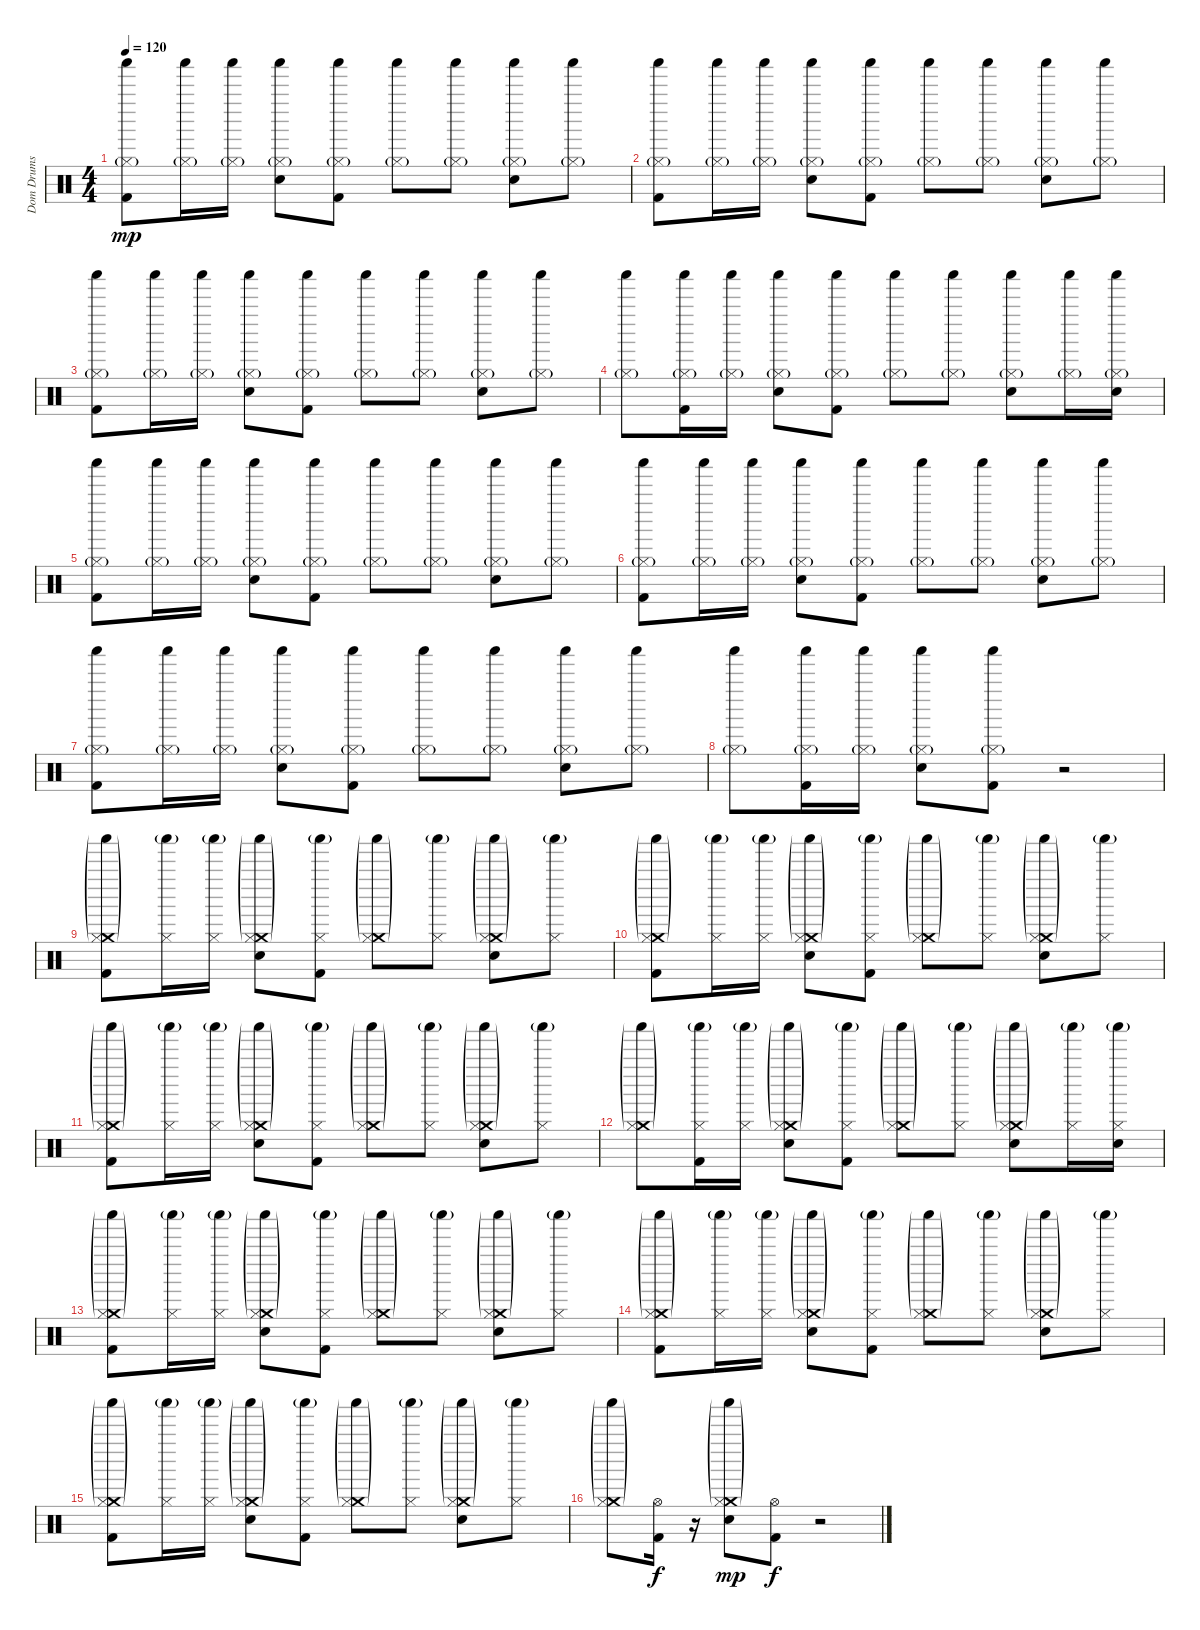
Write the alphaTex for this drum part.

\track ("Dom Drums" "Dom Drums") {instrument percussion}
\staff {score}
\articulation defaults
\ts (4 4)
\tempo 120
\clef neutral
\ks c
("Shaker (hit)" "Hi-Hat (closed)"{g} "Kick (hit) 2").8{dy mp} ("Shaker (hit)" "Hi-Hat (closed)"{g}).16 ("Shaker (hit)" "Hi-Hat (closed)"{g}).16 ("Shaker (hit)" "Hi-Hat (closed)"{g} "Electric Snare (hit)").8 ("Shaker (hit)" "Hi-Hat (closed)"{g} "Kick (hit) 2").8 ("Shaker (hit)" "Hi-Hat (closed)"{g}).8 ("Shaker (hit)" "Hi-Hat (closed)"{g}).8 ("Shaker (hit)" "Hi-Hat (closed)"{g} "Electric Snare (hit)").8 ("Shaker (hit)" "Hi-Hat (closed)"{g}).8 |
("Shaker (hit)" "Hi-Hat (closed)"{g} "Kick (hit) 2").8 ("Shaker (hit)" "Hi-Hat (closed)"{g}).16 ("Shaker (hit)" "Hi-Hat (closed)"{g}).16 ("Shaker (hit)" "Hi-Hat (closed)"{g} "Electric Snare (hit)").8 ("Shaker (hit)" "Hi-Hat (closed)"{g} "Kick (hit) 2").8 ("Shaker (hit)" "Hi-Hat (closed)"{g}).8 ("Shaker (hit)" "Hi-Hat (closed)"{g}).8 ("Shaker (hit)" "Hi-Hat (closed)"{g} "Electric Snare (hit)").8 ("Shaker (hit)" "Hi-Hat (closed)"{g}).8 |
("Shaker (hit)" "Hi-Hat (closed)"{g} "Kick (hit) 2").8 ("Shaker (hit)" "Hi-Hat (closed)"{g}).16 ("Shaker (hit)" "Hi-Hat (closed)"{g}).16 ("Shaker (hit)" "Hi-Hat (closed)"{g} "Electric Snare (hit)").8 ("Shaker (hit)" "Hi-Hat (closed)"{g} "Kick (hit) 2").8 ("Shaker (hit)" "Hi-Hat (closed)"{g}).8 ("Shaker (hit)" "Hi-Hat (closed)"{g}).8 ("Shaker (hit)" "Hi-Hat (closed)"{g} "Electric Snare (hit)").8 ("Shaker (hit)" "Hi-Hat (closed)"{g}).8 |
("Shaker (hit)" "Hi-Hat (closed)"{g}).8 ("Shaker (hit)" "Hi-Hat (closed)"{g} "Kick (hit) 2").16 ("Shaker (hit)" "Hi-Hat (closed)"{g}).16 ("Shaker (hit)" "Hi-Hat (closed)"{g} "Electric Snare (hit)").8 ("Shaker (hit)" "Hi-Hat (closed)"{g} "Kick (hit) 2").8 ("Shaker (hit)" "Hi-Hat (closed)"{g}).8 ("Shaker (hit)" "Hi-Hat (closed)"{g}).8 ("Shaker (hit)" "Hi-Hat (closed)"{g} "Electric Snare (hit)").8 ("Shaker (hit)" "Hi-Hat (closed)"{g}).16 ("Shaker (hit)" "Hi-Hat (closed)"{g} "Electric Snare (hit)").16 |
("Shaker (hit)" "Hi-Hat (closed)"{g} "Kick (hit) 2").8 ("Shaker (hit)" "Hi-Hat (closed)"{g}).16 ("Shaker (hit)" "Hi-Hat (closed)"{g}).16 ("Shaker (hit)" "Hi-Hat (closed)"{g} "Electric Snare (hit)").8 ("Shaker (hit)" "Hi-Hat (closed)"{g} "Kick (hit) 2").8 ("Shaker (hit)" "Hi-Hat (closed)"{g}).8 ("Shaker (hit)" "Hi-Hat (closed)"{g}).8 ("Shaker (hit)" "Hi-Hat (closed)"{g} "Electric Snare (hit)").8 ("Shaker (hit)" "Hi-Hat (closed)"{g}).8 |
("Shaker (hit)" "Hi-Hat (closed)"{g} "Kick (hit) 2").8 ("Shaker (hit)" "Hi-Hat (closed)"{g}).16 ("Shaker (hit)" "Hi-Hat (closed)"{g}).16 ("Shaker (hit)" "Hi-Hat (closed)"{g} "Electric Snare (hit)").8 ("Shaker (hit)" "Hi-Hat (closed)"{g} "Kick (hit) 2").8 ("Shaker (hit)" "Hi-Hat (closed)"{g}).8 ("Shaker (hit)" "Hi-Hat (closed)"{g}).8 ("Shaker (hit)" "Hi-Hat (closed)"{g} "Electric Snare (hit)").8 ("Shaker (hit)" "Hi-Hat (closed)"{g}).8 |
("Shaker (hit)" "Hi-Hat (closed)"{g} "Kick (hit) 2").8 ("Shaker (hit)" "Hi-Hat (closed)"{g}).16 ("Shaker (hit)" "Hi-Hat (closed)"{g}).16 ("Shaker (hit)" "Hi-Hat (closed)"{g} "Electric Snare (hit)").8 ("Shaker (hit)" "Hi-Hat (closed)"{g} "Kick (hit) 2").8 ("Shaker (hit)" "Hi-Hat (closed)"{g}).8 ("Shaker (hit)" "Hi-Hat (closed)"{g}).8 ("Shaker (hit)" "Hi-Hat (closed)"{g} "Electric Snare (hit)").8 ("Shaker (hit)" "Hi-Hat (closed)"{g}).8 |
("Shaker (hit)" "Hi-Hat (closed)"{g}).8 ("Shaker (hit)" "Hi-Hat (closed)"{g} "Kick (hit) 2").16 ("Shaker (hit)" "Hi-Hat (closed)"{g}).16 ("Shaker (hit)" "Hi-Hat (closed)"{g} "Electric Snare (hit)").8 ("Shaker (hit)" "Hi-Hat (closed)"{g} "Kick (hit) 2").8 r.2 |
("Crash medium (hit)"{g} "Hi-Hat (closed)" "Shaker (hit)"{g} "Kick (hit) 2").8 ("Hi-Hat (closed)" "Shaker (hit)"{g}).16 ("Hi-Hat (closed)" "Shaker (hit)"{g}).16 ("Crash medium (hit)"{g} "Hi-Hat (closed)" "Shaker (hit)"{g} "Electric Snare (hit)").8 ("Hi-Hat (closed)" "Shaker (hit)"{g} "Kick (hit) 2").8 ("Crash medium (hit)"{g} "Hi-Hat (closed)" "Shaker (hit)"{g}).8 ("Hi-Hat (closed)" "Shaker (hit)"{g}).8 ("Crash medium (hit)"{g} "Hi-Hat (closed)"{g} "Shaker (hit)"{g} "Electric Snare (hit)").8 ("Hi-Hat (closed)" "Shaker (hit)"{g}).8 |
("Crash medium (hit)"{g} "Hi-Hat (closed)" "Shaker (hit)"{g} "Kick (hit) 2").8 ("Hi-Hat (closed)" "Shaker (hit)"{g}).16 ("Hi-Hat (closed)" "Shaker (hit)"{g}).16 ("Crash medium (hit)"{g} "Hi-Hat (closed)" "Shaker (hit)"{g} "Electric Snare (hit)").8 ("Hi-Hat (closed)" "Shaker (hit)"{g} "Kick (hit) 2").8 ("Crash medium (hit)"{g} "Hi-Hat (closed)" "Shaker (hit)"{g}).8 ("Hi-Hat (closed)" "Shaker (hit)"{g}).8 ("Crash medium (hit)"{g} "Hi-Hat (closed)" "Shaker (hit)"{g} "Electric Snare (hit)").8 ("Hi-Hat (closed)" "Shaker (hit)"{g}).8 |
("Crash medium (hit)"{g} "Hi-Hat (closed)" "Shaker (hit)"{g} "Kick (hit) 2").8 ("Hi-Hat (closed)" "Shaker (hit)"{g}).16 ("Hi-Hat (closed)" "Shaker (hit)"{g}).16 ("Crash medium (hit)"{g} "Hi-Hat (closed)" "Shaker (hit)"{g} "Electric Snare (hit)").8 ("Hi-Hat (closed)" "Shaker (hit)"{g} "Kick (hit) 2").8 ("Crash medium (hit)"{g} "Hi-Hat (closed)" "Shaker (hit)"{g}).8 ("Hi-Hat (closed)" "Shaker (hit)"{g}).8 ("Crash medium (hit)"{g} "Hi-Hat (closed)" "Shaker (hit)"{g} "Electric Snare (hit)").8 ("Hi-Hat (closed)" "Shaker (hit)"{g}).8 |
("Crash medium (hit)"{g} "Hi-Hat (closed)" "Shaker (hit)"{g}).8 ("Hi-Hat (closed)" "Shaker (hit)"{g} "Kick (hit) 2").16 ("Hi-Hat (closed)" "Shaker (hit)"{g}).16 ("Crash medium (hit)"{g} "Hi-Hat (closed)" "Shaker (hit)"{g} "Electric Snare (hit)").8 ("Hi-Hat (closed)" "Shaker (hit)"{g} "Kick (hit) 2").8 ("Crash medium (hit)"{g} "Hi-Hat (closed)" "Shaker (hit)"{g}).8 ("Hi-Hat (closed)" "Shaker (hit)"{g}).8 ("Crash medium (hit)"{g} "Hi-Hat (closed)" "Shaker (hit)"{g} "Electric Snare (hit)").8 ("Hi-Hat (closed)" "Shaker (hit)"{g}).16 ("Hi-Hat (closed)" "Shaker (hit)"{g} "Electric Snare (hit)").16 |
("Crash medium (hit)"{g} "Hi-Hat (closed)" "Shaker (hit)"{g} "Kick (hit) 2").8 ("Hi-Hat (closed)" "Shaker (hit)"{g}).16 ("Hi-Hat (closed)" "Shaker (hit)"{g}).16 ("Crash medium (hit)"{g} "Hi-Hat (closed)" "Shaker (hit)"{g} "Electric Snare (hit)").8 ("Hi-Hat (closed)" "Shaker (hit)"{g} "Kick (hit) 2").8 ("Crash medium (hit)"{g} "Hi-Hat (closed)" "Shaker (hit)"{g}).8 ("Hi-Hat (closed)" "Shaker (hit)"{g}).8 ("Crash medium (hit)"{g} "Hi-Hat (closed)"{g} "Shaker (hit)"{g} "Electric Snare (hit)").8 ("Hi-Hat (closed)" "Shaker (hit)"{g}).8 |
("Crash medium (hit)"{g} "Hi-Hat (closed)" "Shaker (hit)"{g} "Kick (hit) 2").8 ("Hi-Hat (closed)" "Shaker (hit)"{g}).16 ("Hi-Hat (closed)" "Shaker (hit)"{g}).16 ("Crash medium (hit)"{g} "Hi-Hat (closed)" "Shaker (hit)"{g} "Electric Snare (hit)").8 ("Hi-Hat (closed)" "Shaker (hit)"{g} "Kick (hit) 2").8 ("Crash medium (hit)"{g} "Hi-Hat (closed)" "Shaker (hit)"{g}).8 ("Hi-Hat (closed)" "Shaker (hit)"{g}).8 ("Crash medium (hit)"{g} "Hi-Hat (closed)" "Shaker (hit)"{g} "Electric Snare (hit)").8 ("Hi-Hat (closed)" "Shaker (hit)"{g}).8 |
("Crash medium (hit)"{g} "Hi-Hat (closed)" "Shaker (hit)"{g} "Kick (hit) 2").8 ("Hi-Hat (closed)" "Shaker (hit)"{g}).16 ("Hi-Hat (closed)" "Shaker (hit)"{g}).16 ("Crash medium (hit)"{g} "Hi-Hat (closed)" "Shaker (hit)"{g} "Electric Snare (hit)").8 ("Hi-Hat (closed)" "Shaker (hit)"{g} "Kick (hit) 2").8 ("Crash medium (hit)"{g} "Hi-Hat (closed)" "Shaker (hit)"{g}).8 ("Hi-Hat (closed)" "Shaker (hit)"{g}).8 ("Crash medium (hit)"{g} "Hi-Hat (closed)" "Shaker (hit)"{g} "Electric Snare (hit)").8 ("Hi-Hat (closed)" "Shaker (hit)"{g}).8 |
("Crash medium (hit)"{g} "Hi-Hat (closed)" "Shaker (hit)"{g}).8 ("Hi-Hat (open)" "Kick (hit) 2").16{dy f} r.16 ("Crash medium (hit)"{g} "Hi-Hat (closed)" "Shaker (hit)"{g} "Electric Snare (hit)").8{dy mp} ("Hi-Hat (open)" "Kick (hit) 2").8{dy f} r.2
